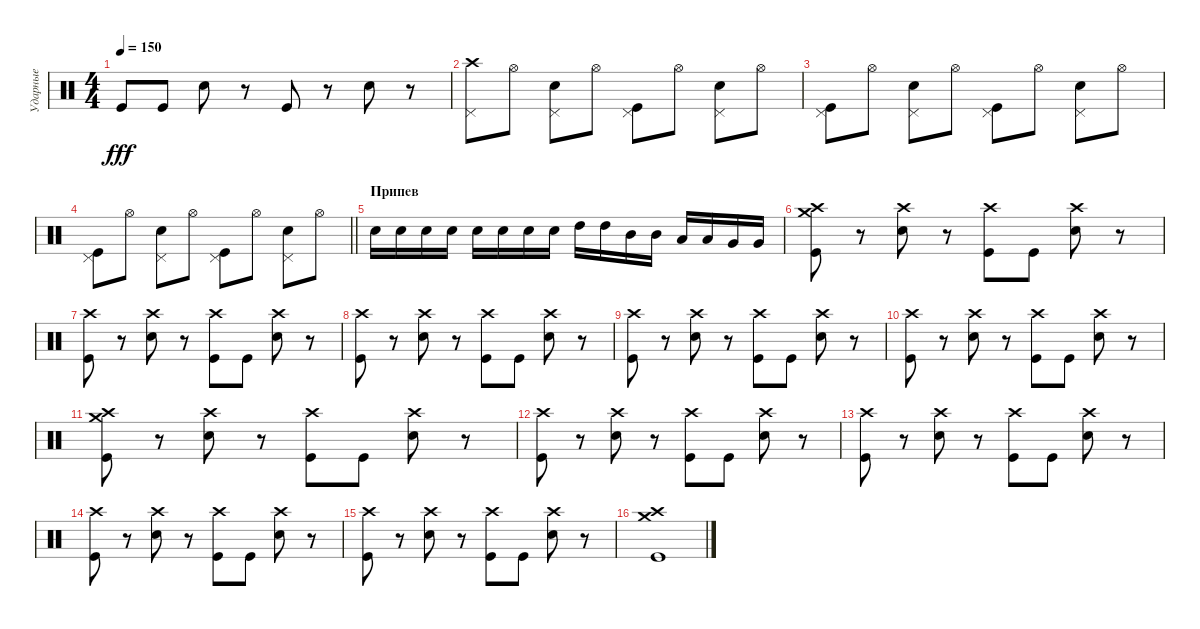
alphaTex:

\track ("Ударные" "Ударные") {instrument percussion}
\staff {score}
\articulation defaults
\ts (4 4)
\tempo 150
\clef neutral
\ks c "Kick (hit)".8{dy fff} "Kick (hit)".8 "Electric Snare (hit)".8
r.8 "Kick (hit)".8 r.8 "Electric Snare (hit)".8 r.8 |
("Crash high (hit)" "Pedal Hi-Hat (hit)").8 "Hi-Hat (open)".8 ("Electric Snare (hit)" "Pedal Hi-Hat (hit)").8 "Hi-Hat (open)".8 ("Kick (hit)" "Pedal Hi-Hat (hit)").8 "Hi-Hat (open)".8 ("Electric Snare (hit)" "Pedal Hi-Hat (hit)").8 "Hi-Hat (open)".8 |
("Kick (hit)" "Pedal Hi-Hat (hit)").8 "Hi-Hat (open)".8 ("Electric Snare (hit)" "Pedal Hi-Hat (hit)").8 "Hi-Hat (open)".8 ("Kick (hit)" "Pedal Hi-Hat (hit)").8 "Hi-Hat (open)".8 ("Electric Snare (hit)" "Pedal Hi-Hat (hit)").8 "Hi-Hat (open)".8 |
\barLineRight lightlight
("Kick (hit)" "Pedal Hi-Hat (hit)").8 "Hi-Hat (open)".8 ("Electric Snare (hit)" "Pedal Hi-Hat (hit)").8 "Hi-Hat (open)".8 ("Kick (hit)" "Pedal Hi-Hat (hit)").8 "Hi-Hat (open)".8 ("Electric Snare (hit)" "Pedal Hi-Hat (hit)").8 "Hi-Hat (open)".8 |
\section ("" "Припев")
"Electric Snare (hit)".16 "Electric Snare (hit)".16 "Electric Snare (hit)".16 "Electric Snare (hit)".16 "Electric Snare (hit)".16 "Electric Snare (hit)".16 "Electric Snare (hit)".16 "Electric Snare (hit)".16 "High Tom (hit)".16 "High Tom (hit)".16 "Mid Tom (hit)".16 "Mid Tom (hit)".16 "Low Tom (hit)".16 "Low Tom (hit)".16 "Very Low Tom (hit)".16 "Very Low Tom (hit)".16 |
("Crash medium (hit)" "Kick (hit)" "Crash high (hit)").8 r.8 ("Crash high (hit)" "Electric Snare (hit)").8 r.8 ("Crash high (hit)" "Kick (hit)").8 "Kick (hit)".8 ("Crash high (hit)" "Electric Snare (hit)").8 r.8 |
("Crash high (hit)" "Kick (hit)").8 r.8 ("Crash high (hit)" "Electric Snare (hit)").8 r.8 ("Crash high (hit)" "Kick (hit)").8 "Kick (hit)".8 ("Crash high (hit)" "Electric Snare (hit)").8 r.8 |
("Crash high (hit)" "Kick (hit)").8 r.8 ("Crash high (hit)" "Electric Snare (hit)").8 r.8 ("Crash high (hit)" "Kick (hit)").8 "Kick (hit)".8 ("Crash high (hit)" "Electric Snare (hit)").8 r.8 |
("Crash high (hit)" "Kick (hit)").8 r.8 ("Crash high (hit)" "Electric Snare (hit)").8 r.8 ("Crash high (hit)" "Kick (hit)").8 "Kick (hit)".8 ("Crash high (hit)" "Electric Snare (hit)").8 r.8 |
("Crash high (hit)" "Kick (hit)").8 r.8 ("Crash high (hit)" "Electric Snare (hit)").8 r.8 ("Crash high (hit)" "Kick (hit)").8 "Kick (hit)".8 ("Crash high (hit)" "Electric Snare (hit)").8 r.8 |
("Crash medium (hit)" "Kick (hit)" "Crash high (hit)").8 r.8 ("Crash high (hit)" "Electric Snare (hit)").8 r.8 ("Crash high (hit)" "Kick (hit)").8 "Kick (hit)".8 ("Crash high (hit)" "Electric Snare (hit)").8 r.8 |
("Crash high (hit)" "Kick (hit)").8 r.8 ("Crash high (hit)" "Electric Snare (hit)").8 r.8 ("Crash high (hit)" "Kick (hit)").8 "Kick (hit)".8 ("Crash high (hit)" "Electric Snare (hit)").8 r.8 |
("Crash high (hit)" "Kick (hit)").8 r.8 ("Crash high (hit)" "Electric Snare (hit)").8 r.8 ("Crash high (hit)" "Kick (hit)").8 "Kick (hit)".8 ("Crash high (hit)" "Electric Snare (hit)").8 r.8 |
("Crash high (hit)" "Kick (hit)").8 r.8 ("Crash high (hit)" "Electric Snare (hit)").8 r.8 ("Crash high (hit)" "Kick (hit)").8 "Kick (hit)".8 ("Crash high (hit)" "Electric Snare (hit)").8 r.8 |
("Crash high (hit)" "Kick (hit)").8 r.8 ("Crash high (hit)" "Electric Snare (hit)").8 r.8 ("Crash high (hit)" "Kick (hit)").8 "Kick (hit)".8 ("Crash high (hit)" "Electric Snare (hit)").8 r.8 |
("Crash high (hit)" "Kick (hit)" "Crash medium (hit)").1
